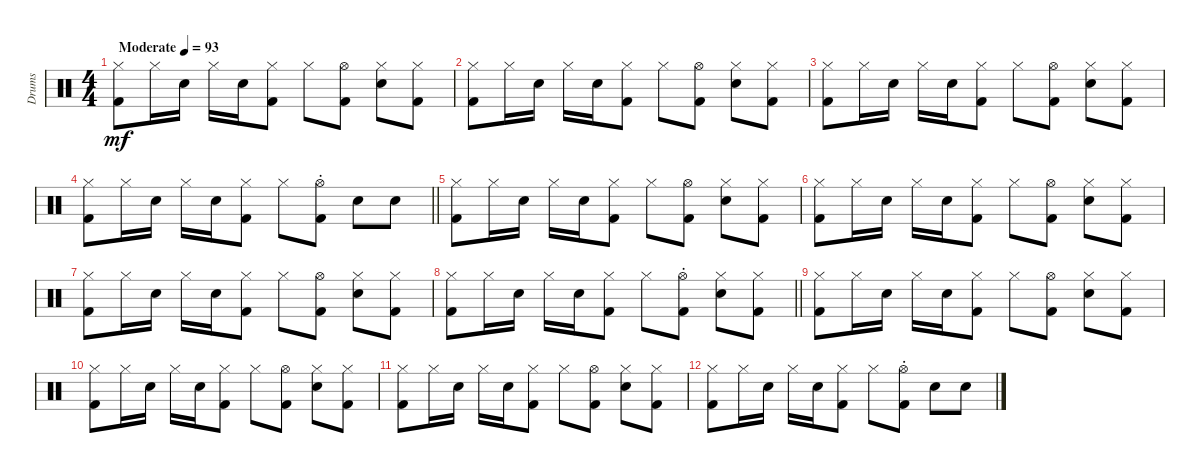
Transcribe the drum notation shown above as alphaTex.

\track ("Drums" "Drums") {instrument percussion}
\staff {score}
\articulation defaults
\ts (4 4)
\tempo (93 "Moderate")
\clef neutral
\ks c
("Hi-Hat (closed)" "Kick (hit) 2").8{dy mf} "Hi-Hat (closed)".16 "Snare (hit) 2".16 "Hi-Hat (closed)".16 "Snare (hit) 2".16 ("Hi-Hat (closed)" "Kick (hit) 2").8 "Hi-Hat (closed)".8 ("Hi-Hat (open)" "Kick (hit) 2").8 ("Hi-Hat (closed)" "Snare (hit) 2").8 ("Hi-Hat (closed)" "Kick (hit) 2").8 |
("Hi-Hat (closed)" "Kick (hit) 2").8 "Hi-Hat (closed)".16 "Snare (hit) 2".16 "Hi-Hat (closed)".16 "Snare (hit) 2".16 ("Hi-Hat (closed)" "Kick (hit) 2").8 "Hi-Hat (closed)".8 ("Hi-Hat (open)" "Kick (hit) 2").8 ("Hi-Hat (closed)" "Snare (hit) 2").8 ("Hi-Hat (closed)" "Kick (hit) 2").8 |
("Hi-Hat (closed)" "Kick (hit) 2").8 "Hi-Hat (closed)".16 "Snare (hit) 2".16 "Hi-Hat (closed)".16 "Snare (hit) 2".16 ("Hi-Hat (closed)" "Kick (hit) 2").8 "Hi-Hat (closed)".8 ("Hi-Hat (open)" "Kick (hit) 2").8 ("Hi-Hat (closed)" "Snare (hit) 2").8 ("Hi-Hat (closed)" "Kick (hit) 2").8 |
\barLineRight lightlight
("Hi-Hat (closed)" "Kick (hit) 2").8 "Hi-Hat (closed)".16 "Snare (hit) 2".16 "Hi-Hat (closed)".16 "Snare (hit) 2".16 ("Hi-Hat (closed)" "Kick (hit) 2").8 "Hi-Hat (closed)".8 ("Hi-Hat (open)"{st} "Kick (hit) 2").8 "Snare (hit) 2".8 "Snare (hit) 2".8 |
("Hi-Hat (closed)" "Kick (hit) 2").8 "Hi-Hat (closed)".16 "Snare (hit) 2".16 "Hi-Hat (closed)".16 "Snare (hit) 2".16 ("Hi-Hat (closed)" "Kick (hit) 2").8 "Hi-Hat (closed)".8 ("Hi-Hat (open)" "Kick (hit) 2").8 ("Hi-Hat (closed)" "Snare (hit) 2").8 ("Hi-Hat (closed)" "Kick (hit) 2").8 |
("Hi-Hat (closed)" "Kick (hit) 2").8 "Hi-Hat (closed)".16 "Snare (hit) 2".16 "Hi-Hat (closed)".16 "Snare (hit) 2".16 ("Hi-Hat (closed)" "Kick (hit) 2").8 "Hi-Hat (closed)".8 ("Hi-Hat (open)" "Kick (hit) 2").8 ("Hi-Hat (closed)" "Snare (hit) 2").8 ("Hi-Hat (closed)" "Kick (hit) 2").8 |
("Hi-Hat (closed)" "Kick (hit) 2").8 "Hi-Hat (closed)".16 "Snare (hit) 2".16 "Hi-Hat (closed)".16 "Snare (hit) 2".16 ("Hi-Hat (closed)" "Kick (hit) 2").8 "Hi-Hat (closed)".8 ("Hi-Hat (open)" "Kick (hit) 2").8 ("Hi-Hat (closed)" "Snare (hit) 2").8 ("Hi-Hat (closed)" "Kick (hit) 2").8 |
\barLineRight lightlight
("Hi-Hat (closed)" "Kick (hit) 2").8 "Hi-Hat (closed)".16 "Snare (hit) 2".16 "Hi-Hat (closed)".16 "Snare (hit) 2".16 ("Hi-Hat (closed)" "Kick (hit) 2").8 "Hi-Hat (closed)".8 ("Hi-Hat (open)"{st} "Kick (hit) 2").8 ("Hi-Hat (closed)" "Snare (hit) 2").8 ("Hi-Hat (closed)" "Kick (hit) 2").8 |
("Hi-Hat (closed)" "Kick (hit) 2").8 "Hi-Hat (closed)".16 "Snare (hit) 2".16 "Hi-Hat (closed)".16 "Snare (hit) 2".16 ("Hi-Hat (closed)" "Kick (hit) 2").8 "Hi-Hat (closed)".8 ("Hi-Hat (open)" "Kick (hit) 2").8 ("Hi-Hat (closed)" "Snare (hit) 2").8 ("Hi-Hat (closed)" "Kick (hit) 2").8 |
("Hi-Hat (closed)" "Kick (hit) 2").8 "Hi-Hat (closed)".16 "Snare (hit) 2".16 "Hi-Hat (closed)".16 "Snare (hit) 2".16 ("Hi-Hat (closed)" "Kick (hit) 2").8 "Hi-Hat (closed)".8 ("Hi-Hat (open)" "Kick (hit) 2").8 ("Hi-Hat (closed)" "Snare (hit) 2").8 ("Hi-Hat (closed)" "Kick (hit) 2").8 |
("Hi-Hat (closed)" "Kick (hit) 2").8 "Hi-Hat (closed)".16 "Snare (hit) 2".16 "Hi-Hat (closed)".16 "Snare (hit) 2".16 ("Hi-Hat (closed)" "Kick (hit) 2").8 "Hi-Hat (closed)".8 ("Hi-Hat (open)" "Kick (hit) 2").8 ("Hi-Hat (closed)" "Snare (hit) 2").8 ("Hi-Hat (closed)" "Kick (hit) 2").8 |
("Hi-Hat (closed)" "Kick (hit) 2").8 "Hi-Hat (closed)".16 "Snare (hit) 2".16 "Hi-Hat (closed)".16 "Snare (hit) 2".16 ("Hi-Hat (closed)" "Kick (hit) 2").8 "Hi-Hat (closed)".8 ("Hi-Hat (open)"{st} "Kick (hit) 2").8 "Snare (hit) 2".8 "Snare (hit) 2".8
